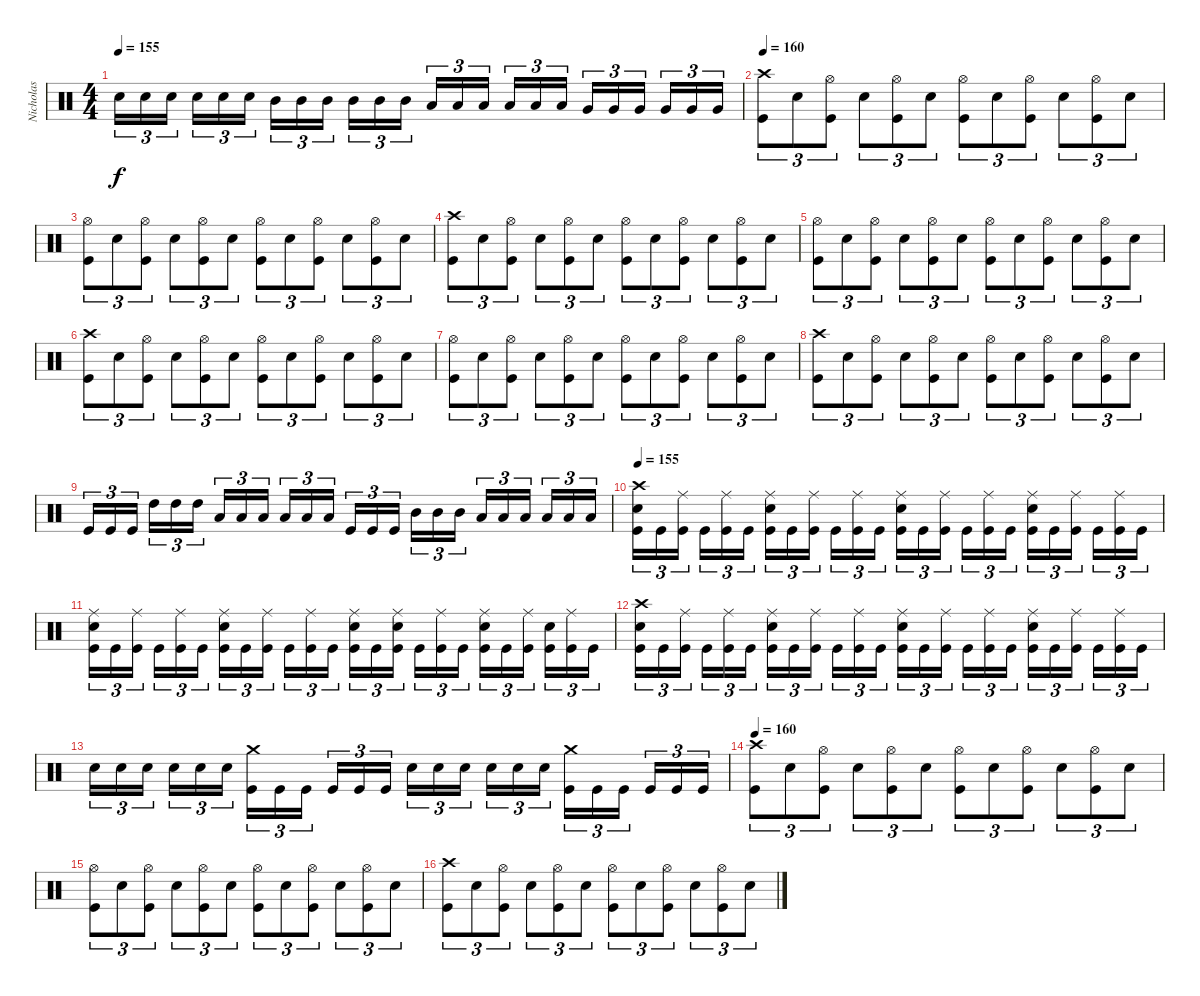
\track ("Nicholas" "Nicholas") {instrument percussion}
\staff {score}
\articulation defaults
\ts (4 4)
\tempo 155
\clef neutral
\ks c "Electric Snare (hit)".16{tu (3 2) dy f} "Electric Snare (hit)".16{tu (3 2)} "Electric Snare (hit)".16{tu (3 2)} "Electric Snare (hit)".16{tu (3 2)} "Electric Snare (hit)".16{tu (3 2)} "Electric Snare (hit)".16{tu (3 2)} "Mid Tom (hit)".16{tu (3 2)} "Mid Tom (hit)".16{tu (3 2)} "Mid Tom (hit)".16{tu (3 2)} "Mid Tom (hit)".16{tu (3 2)} "Mid Tom (hit)".16{tu (3 2)} "Mid Tom (hit)".16{tu (3 2)} "Low Tom (hit)".16{tu (3 2)} "Low Tom (hit)".16{tu (3 2)} "Low Tom (hit)".16{tu (3 2)} "Low Tom (hit)".16{tu (3 2)} "Low Tom (hit)".16{tu (3 2)} "Low Tom (hit)".16{tu (3 2)} "Very Low Tom (hit)".16{tu (3 2)} "Very Low Tom (hit)".16{tu (3 2)} "Very Low Tom (hit)".16{tu (3 2)} "Very Low Tom (hit)".16{tu (3 2)} "Very Low Tom (hit)".16{tu (3 2)} "Very Low Tom (hit)".16{tu (3 2)}
|
\tempo 160
("Crash high (hit)" "Kick (hit)").8{tu (3 2)} "Electric Snare (hit)".8{tu (3 2)} ("Hi-Hat (open)" "Kick (hit)").8{tu (3 2)} "Electric Snare (hit)".8{tu (3 2)} ("Hi-Hat (open)" "Kick (hit)").8{tu (3 2)} "Electric Snare (hit)".8{tu (3 2)} ("Hi-Hat (open)" "Kick (hit)").8{tu (3 2)} "Electric Snare (hit)".8{tu (3 2)} ("Hi-Hat (open)" "Kick (hit)").8{tu (3 2)} "Electric Snare (hit)".8{tu (3 2)} ("Hi-Hat (open)" "Kick (hit)").8{tu (3 2)} "Electric Snare (hit)".8{tu (3 2)} |
("Hi-Hat (open)" "Kick (hit)").8{tu (3 2)} "Electric Snare (hit)".8{tu (3 2)} ("Hi-Hat (open)" "Kick (hit)").8{tu (3 2)} "Electric Snare (hit)".8{tu (3 2)} ("Hi-Hat (open)" "Kick (hit)").8{tu (3 2)} "Electric Snare (hit)".8{tu (3 2)} ("Hi-Hat (open)" "Kick (hit)").8{tu (3 2)} "Electric Snare (hit)".8{tu (3 2)} ("Hi-Hat (open)" "Kick (hit)").8{tu (3 2)} "Electric Snare (hit)".8{tu (3 2)} ("Hi-Hat (open)" "Kick (hit)").8{tu (3 2)} "Electric Snare (hit)".8{tu (3 2)} |
("Crash high (hit)" "Kick (hit)").8{tu (3 2)} "Electric Snare (hit)".8{tu (3 2)} ("Hi-Hat (open)" "Kick (hit)").8{tu (3 2)} "Electric Snare (hit)".8{tu (3 2)} ("Hi-Hat (open)" "Kick (hit)").8{tu (3 2)} "Electric Snare (hit)".8{tu (3 2)} ("Hi-Hat (open)" "Kick (hit)").8{tu (3 2)} "Electric Snare (hit)".8{tu (3 2)} ("Hi-Hat (open)" "Kick (hit)").8{tu (3 2)} "Electric Snare (hit)".8{tu (3 2)} ("Hi-Hat (open)" "Kick (hit)").8{tu (3 2)} "Electric Snare (hit)".8{tu (3 2)} |
("Hi-Hat (open)" "Kick (hit)").8{tu (3 2)} "Electric Snare (hit)".8{tu (3 2)} ("Hi-Hat (open)" "Kick (hit)").8{tu (3 2)} "Electric Snare (hit)".8{tu (3 2)} ("Hi-Hat (open)" "Kick (hit)").8{tu (3 2)} "Electric Snare (hit)".8{tu (3 2)} ("Hi-Hat (open)" "Kick (hit)").8{tu (3 2)} "Electric Snare (hit)".8{tu (3 2)} ("Hi-Hat (open)" "Kick (hit)").8{tu (3 2)} "Electric Snare (hit)".8{tu (3 2)} ("Hi-Hat (open)" "Kick (hit)").8{tu (3 2)} "Electric Snare (hit)".8{tu (3 2)} |
("Crash high (hit)" "Kick (hit)").8{tu (3 2)} "Electric Snare (hit)".8{tu (3 2)} ("Hi-Hat (open)" "Kick (hit)").8{tu (3 2)} "Electric Snare (hit)".8{tu (3 2)} ("Hi-Hat (open)" "Kick (hit)").8{tu (3 2)} "Electric Snare (hit)".8{tu (3 2)} ("Hi-Hat (open)" "Kick (hit)").8{tu (3 2)} "Electric Snare (hit)".8{tu (3 2)} ("Hi-Hat (open)" "Kick (hit)").8{tu (3 2)} "Electric Snare (hit)".8{tu (3 2)} ("Hi-Hat (open)" "Kick (hit)").8{tu (3 2)} "Electric Snare (hit)".8{tu (3 2)} |
("Hi-Hat (open)" "Kick (hit)").8{tu (3 2)} "Electric Snare (hit)".8{tu (3 2)} ("Hi-Hat (open)" "Kick (hit)").8{tu (3 2)} "Electric Snare (hit)".8{tu (3 2)} ("Hi-Hat (open)" "Kick (hit)").8{tu (3 2)} "Electric Snare (hit)".8{tu (3 2)} ("Hi-Hat (open)" "Kick (hit)").8{tu (3 2)} "Electric Snare (hit)".8{tu (3 2)} ("Hi-Hat (open)" "Kick (hit)").8{tu (3 2)} "Electric Snare (hit)".8{tu (3 2)} ("Hi-Hat (open)" "Kick (hit)").8{tu (3 2)} "Electric Snare (hit)".8{tu (3 2)} |
("Crash high (hit)" "Kick (hit)").8{tu (3 2)} "Electric Snare (hit)".8{tu (3 2)} ("Hi-Hat (open)" "Kick (hit)").8{tu (3 2)} "Electric Snare (hit)".8{tu (3 2)} ("Hi-Hat (open)" "Kick (hit)").8{tu (3 2)} "Electric Snare (hit)".8{tu (3 2)} ("Hi-Hat (open)" "Kick (hit)").8{tu (3 2)} "Electric Snare (hit)".8{tu (3 2)} ("Hi-Hat (open)" "Kick (hit)").8{tu (3 2)} "Electric Snare (hit)".8{tu (3 2)} ("Hi-Hat (open)" "Kick (hit)").8{tu (3 2)} "Electric Snare (hit)".8{tu (3 2)} |
"Kick (hit)".16{tu (3 2)} "Kick (hit)".16{tu (3 2)} "Kick (hit)".16{tu (3 2)} "High Tom (hit)".16{tu (3 2)} "High Tom (hit)".16{tu (3 2)} "High Tom (hit)".16{tu (3 2)} "Low Tom (hit)".16{tu (3 2)} "Low Tom (hit)".16{tu (3 2)} "Low Tom (hit)".16{tu (3 2)} "Low Tom (hit)".16{tu (3 2)} "Low Tom (hit)".16{tu (3 2)} "Low Tom (hit)".16{tu (3 2)} "Kick (hit)".16{tu (3 2)} "Kick (hit)".16{tu (3 2)} "Kick (hit)".16{tu (3 2)} "Mid Tom (hit)".16{tu (3 2)} "Mid Tom (hit)".16{tu (3 2)} "Mid Tom (hit)".16{tu (3 2)} "Low Tom (hit)".16{tu (3 2)} "Low Tom (hit)".16{tu (3 2)} "Low Tom (hit)".16{tu (3 2)} "Low Tom (hit)".16{tu (3 2)} "Low Tom (hit)".16{tu (3 2)} "Low Tom (hit)".16{tu (3 2)} |
\tempo 155
("Crash high (hit)" "Electric Snare (hit)" "Kick (hit)").16{tu (3 2)} "Kick (hit)".16{tu (3 2)} ("Ride (middle)" "Kick (hit)").16{tu (3 2)} "Kick (hit)".16{tu (3 2)} ("Ride (middle)" "Kick (hit)").16{tu (3 2)} "Kick (hit)".16{tu (3 2)} ("Ride (middle)" "Electric Snare (hit)" "Kick (hit)").16{tu (3 2)} "Kick (hit)".16{tu (3 2)} ("Ride (middle)" "Kick (hit)").16{tu (3 2)} "Kick (hit)".16{tu (3 2)} ("Ride (middle)" "Kick (hit)").16{tu (3 2)} "Kick (hit)".16{tu (3 2)} ("Ride (middle)" "Electric Snare (hit)" "Kick (hit)").16{tu (3 2)} "Kick (hit)".16{tu (3 2)} ("Ride (middle)" "Kick (hit)").16{tu (3 2)} "Kick (hit)".16{tu (3 2)} ("Ride (middle)" "Kick (hit)").16{tu (3 2)} "Kick (hit)".16{tu (3 2)} ("Ride (middle)" "Electric Snare (hit)" "Kick (hit)").16{tu (3 2)} "Kick (hit)".16{tu (3 2)} ("Ride (middle)" "Kick (hit)").16{tu (3 2)} "Kick (hit)".16{tu (3 2)} ("Ride (middle)" "Kick (hit)").16{tu (3 2)} "Kick (hit)".16{tu (3 2)} |
("Ride (middle)" "Electric Snare (hit)" "Kick (hit)").16{tu (3 2)} "Kick (hit)".16{tu (3 2)} ("Ride (middle)" "Kick (hit)").16{tu (3 2)} "Kick (hit)".16{tu (3 2)} ("Ride (middle)" "Kick (hit)").16{tu (3 2)} "Kick (hit)".16{tu (3 2)} ("Ride (middle)" "Electric Snare (hit)" "Kick (hit)").16{tu (3 2)} "Kick (hit)".16{tu (3 2)} ("Ride (middle)" "Kick (hit)").16{tu (3 2)} "Kick (hit)".16{tu (3 2)} ("Ride (middle)" "Kick (hit)").16{tu (3 2)} "Kick (hit)".16{tu (3 2)} ("Ride (middle)" "Electric Snare (hit)" "Kick (hit)").16{tu (3 2)} "Kick (hit)".16{tu (3 2)} ("Ride (middle)" "Electric Snare (hit)" "Kick (hit)").16{tu (3 2)} "Kick (hit)".16{tu (3 2)} ("Ride (middle)" "Kick (hit)").16{tu (3 2)} "Kick (hit)".16{tu (3 2)} ("Ride (middle)" "Electric Snare (hit)" "Kick (hit)").16{tu (3 2)} "Kick (hit)".16{tu (3 2)} ("Ride (middle)" "Kick (hit)").16{tu (3 2)} ("Electric Snare (hit)" "Kick (hit)").16{tu (3 2)} ("Ride (middle)" "Kick (hit)").16{tu (3 2)} "Kick (hit)".16{tu (3 2)} |
("Crash high (hit)" "Electric Snare (hit)" "Kick (hit)").16{tu (3 2)} "Kick (hit)".16{tu (3 2)} ("Ride (middle)" "Kick (hit)").16{tu (3 2)} "Kick (hit)".16{tu (3 2)} ("Ride (middle)" "Kick (hit)").16{tu (3 2)} "Kick (hit)".16{tu (3 2)} ("Ride (middle)" "Electric Snare (hit)" "Kick (hit)").16{tu (3 2)} "Kick (hit)".16{tu (3 2)} ("Ride (middle)" "Kick (hit)").16{tu (3 2)} "Kick (hit)".16{tu (3 2)} ("Ride (middle)" "Kick (hit)").16{tu (3 2)} "Kick (hit)".16{tu (3 2)} ("Ride (middle)" "Electric Snare (hit)" "Kick (hit)").16{tu (3 2)} "Kick (hit)".16{tu (3 2)} ("Ride (middle)" "Kick (hit)").16{tu (3 2)} "Kick (hit)".16{tu (3 2)} ("Ride (middle)" "Kick (hit)").16{tu (3 2)} "Kick (hit)".16{tu (3 2)} ("Ride (middle)" "Electric Snare (hit)" "Kick (hit)").16{tu (3 2)} "Kick (hit)".16{tu (3 2)} ("Ride (middle)" "Kick (hit)").16{tu (3 2)} "Kick (hit)".16{tu (3 2)} ("Ride (middle)" "Kick (hit)").16{tu (3 2)} "Kick (hit)".16{tu (3 2)} |
"Electric Snare (hit)".16{tu (3 2)} "Electric Snare (hit)".16{tu (3 2)} "Electric Snare (hit)".16{tu (3 2)} "Electric Snare (hit)".16{tu (3 2)} "Electric Snare (hit)".16{tu (3 2)} "Electric Snare (hit)".16{tu (3 2)} ("Crash medium (hit)" "Kick (hit)").16{tu (3 2)} "Kick (hit)".16{tu (3 2)} "Kick (hit)".16{tu (3 2)} "Kick (hit)".16{tu (3 2)} "Kick (hit)".16{tu (3 2)} "Kick (hit)".16{tu (3 2)} "Electric Snare (hit)".16{tu (3 2)} "Electric Snare (hit)".16{tu (3 2)} "Electric Snare (hit)".16{tu (3 2)} "Electric Snare (hit)".16{tu (3 2)} "Electric Snare (hit)".16{tu (3 2)} "Electric Snare (hit)".16{tu (3 2)} ("Crash medium (hit)" "Kick (hit)").16{tu (3 2)} "Kick (hit)".16{tu (3 2)} "Kick (hit)".16{tu (3 2)} "Kick (hit)".16{tu (3 2)} "Kick (hit)".16{tu (3 2)} "Kick (hit)".16{tu (3 2)} |
\tempo 160
("Crash high (hit)" "Kick (hit)").8{tu (3 2)} "Electric Snare (hit)".8{tu (3 2)} ("Hi-Hat (open)" "Kick (hit)").8{tu (3 2)} "Electric Snare (hit)".8{tu (3 2)} ("Hi-Hat (open)" "Kick (hit)").8{tu (3 2)} "Electric Snare (hit)".8{tu (3 2)} ("Hi-Hat (open)" "Kick (hit)").8{tu (3 2)} "Electric Snare (hit)".8{tu (3 2)} ("Hi-Hat (open)" "Kick (hit)").8{tu (3 2)} "Electric Snare (hit)".8{tu (3 2)} ("Hi-Hat (open)" "Kick (hit)").8{tu (3 2)} "Electric Snare (hit)".8{tu (3 2)} |
("Hi-Hat (open)" "Kick (hit)").8{tu (3 2)} "Electric Snare (hit)".8{tu (3 2)} ("Hi-Hat (open)" "Kick (hit)").8{tu (3 2)} "Electric Snare (hit)".8{tu (3 2)} ("Hi-Hat (open)" "Kick (hit)").8{tu (3 2)} "Electric Snare (hit)".8{tu (3 2)} ("Hi-Hat (open)" "Kick (hit)").8{tu (3 2)} "Electric Snare (hit)".8{tu (3 2)} ("Hi-Hat (open)" "Kick (hit)").8{tu (3 2)} "Electric Snare (hit)".8{tu (3 2)} ("Hi-Hat (open)" "Kick (hit)").8{tu (3 2)} "Electric Snare (hit)".8{tu (3 2)} |
("Crash high (hit)" "Kick (hit)").8{tu (3 2)} "Electric Snare (hit)".8{tu (3 2)} ("Hi-Hat (open)" "Kick (hit)").8{tu (3 2)} "Electric Snare (hit)".8{tu (3 2)} ("Hi-Hat (open)" "Kick (hit)").8{tu (3 2)} "Electric Snare (hit)".8{tu (3 2)} ("Hi-Hat (open)" "Kick (hit)").8{tu (3 2)} "Electric Snare (hit)".8{tu (3 2)} ("Hi-Hat (open)" "Kick (hit)").8{tu (3 2)} "Electric Snare (hit)".8{tu (3 2)} ("Hi-Hat (open)" "Kick (hit)").8{tu (3 2)} "Electric Snare (hit)".8{tu (3 2)}
